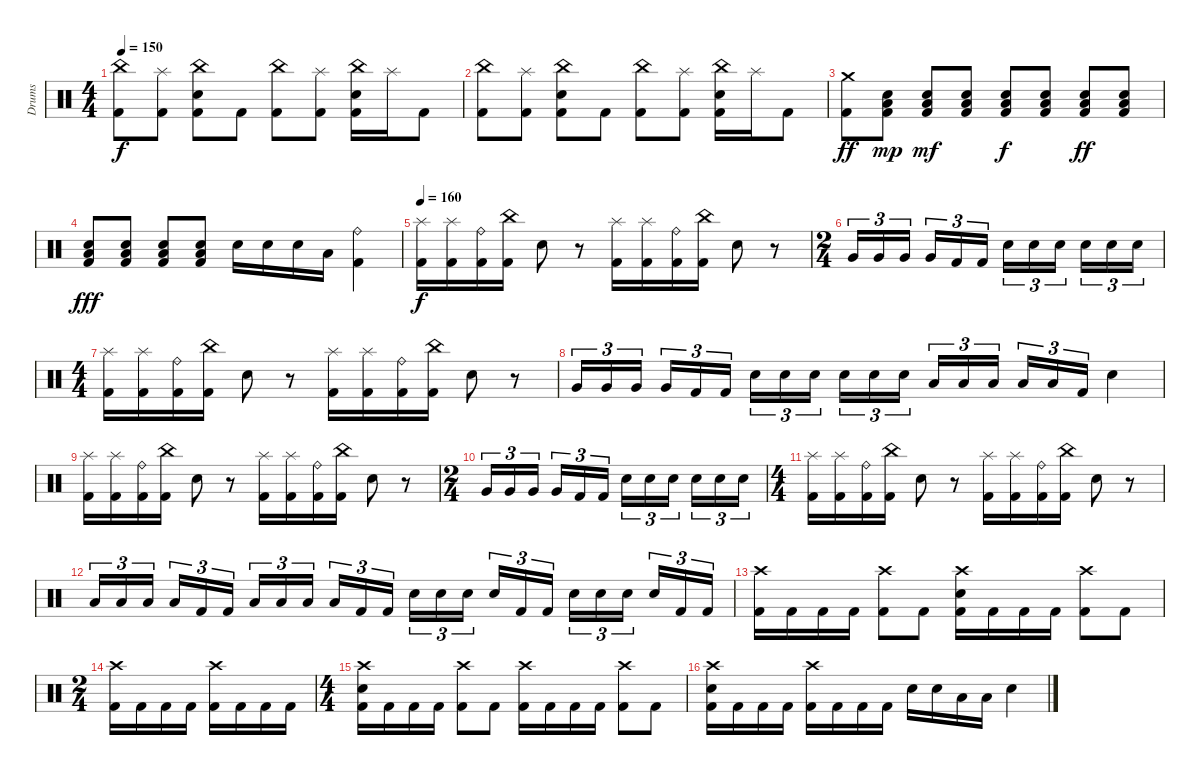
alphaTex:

\track ("Drums" "Drums") {instrument percussion}
\staff {score}
\articulation defaults
\ts (4 4)
\tempo 150
\clef neutral
\ks c
("China (hit)" "Kick (hit) 2").8{dy f} ("Splash (hit)" "Kick (hit) 2").8 ("China (hit)" "Electric Snare (hit)" "Kick (hit) 2").8 "Kick (hit) 2".8 ("China (hit)" "Kick (hit) 2").8 ("Splash (hit)" "Kick (hit) 2").8 ("China (hit)" "Electric Snare (hit)" "Kick (hit) 2").16 "Splash (hit)".16 "Kick (hit) 2".8 |
("China (hit)" "Kick (hit) 2").8 ("Splash (hit)" "Kick (hit) 2").8 ("China (hit)" "Electric Snare (hit)" "Kick (hit) 2").8 "Kick (hit) 2".8 ("China (hit)" "Kick (hit) 2").8 ("Splash (hit)" "Kick (hit) 2").8 ("China (hit)" "Electric Snare (hit)" "Kick (hit) 2").16 "Splash (hit)".16 "Kick (hit) 2".8 |
("Crash medium (hit)" "Kick (hit) 2").8{dy ff} ("Low Floor Tom (hit)" "Electric Snare (hit)" "Kick (hit) 2").8{dy mp} ("Low Floor Tom (hit)" "Electric Snare (hit)" "Kick (hit) 2").8{dy mf} ("Low Floor Tom (hit)" "Electric Snare (hit)" "Kick (hit) 2").8 ("Low Floor Tom (hit)" "Electric Snare (hit)" "Kick (hit) 2").8{dy f} ("Low Floor Tom (hit)" "Electric Snare (hit)" "Kick (hit) 2").8 ("Low Floor Tom (hit)" "Electric Snare (hit)" "Kick (hit) 2").8{dy ff} ("Low Floor Tom (hit)" "Electric Snare (hit)" "Kick (hit) 2").8 |
("Low Floor Tom (hit)" "Electric Snare (hit)" "Kick (hit) 2").8{dy fff} ("Low Floor Tom (hit)" "Electric Snare (hit)" "Kick (hit) 2").8 ("Low Floor Tom (hit)" "Electric Snare (hit)" "Kick (hit) 2").8 ("Low Floor Tom (hit)" "Electric Snare (hit)" "Kick (hit) 2").8 "Electric Snare (hit)".16 "Electric Snare (hit)".16 "Electric Snare (hit)".16 "Low Tom (hit)".16 ("Ride (bell)" "Kick (hit) 2").4 |
\tempo 160
("Splash (hit)" "Kick (hit) 2").16{dy f} ("Splash (hit)" "Kick (hit) 2").16 ("Ride (bell)" "Kick (hit) 2").16 ("China (hit)" "Kick (hit) 2").16 "Electric Snare (hit)".8 r.8 ("Splash (hit)" "Kick (hit) 2").16 ("Splash (hit)" "Kick (hit) 2").16 ("Ride (bell)" "Kick (hit) 2").16 ("China (hit)" "Kick (hit) 2").16 "Electric Snare (hit)".8 r.8 |
\ts (2 4)
"Very Low Tom (hit)".16{tu (3 2)} "Very Low Tom (hit)".16{tu (3 2)} "Very Low Tom (hit)".16{tu (3 2) beam splitsecondary} "Very Low Tom (hit)".16{tu (3 2)} "Kick (hit) 2".16{tu (3 2)} "Kick (hit) 2".16{tu (3 2)} "Electric Snare (hit)".16{tu (3 2)} "Electric Snare (hit)".16{tu (3 2)} "Electric Snare (hit)".16{tu (3 2) beam splitsecondary} "Electric Snare (hit)".16{tu (3 2)} "Electric Snare (hit)".16{tu (3 2)} "Electric Snare (hit)".16{tu (3 2)} |
\ts (4 4)
("Splash (hit)" "Kick (hit) 2").16 ("Splash (hit)" "Kick (hit) 2").16 ("Ride (bell)" "Kick (hit) 2").16 ("China (hit)" "Kick (hit) 2").16 "Electric Snare (hit)".8 r.8 ("Splash (hit)" "Kick (hit) 2").16 ("Splash (hit)" "Kick (hit) 2").16 ("Ride (bell)" "Kick (hit) 2").16 ("China (hit)" "Kick (hit) 2").16 "Electric Snare (hit)".8 r.8 |
"Very Low Tom (hit)".16{tu (3 2)} "Very Low Tom (hit)".16{tu (3 2)} "Very Low Tom (hit)".16{tu (3 2) beam splitsecondary} "Very Low Tom (hit)".16{tu (3 2)} "Kick (hit) 2".16{tu (3 2)} "Kick (hit) 2".16{tu (3 2)} "Electric Snare (hit)".16{tu (3 2)} "Electric Snare (hit)".16{tu (3 2)} "Electric Snare (hit)".16{tu (3 2) beam splitsecondary} "Electric Snare (hit)".16{tu (3 2)} "Electric Snare (hit)".16{tu (3 2)} "Electric Snare (hit)".16{tu (3 2)} "Low Tom (hit)".16{tu (3 2)} "Low Tom (hit)".16{tu (3 2)} "Low Tom (hit)".16{tu (3 2) beam splitsecondary} "Low Tom (hit)".16{tu (3 2)} "Low Tom (hit)".16{tu (3 2)} "Kick (hit) 2".16{tu (3 2)} "Electric Snare (hit)".4 |
("Splash (hit)" "Kick (hit) 2").16 ("Splash (hit)" "Kick (hit) 2").16 ("Ride (bell)" "Kick (hit) 2").16 ("China (hit)" "Kick (hit) 2").16 "Electric Snare (hit)".8 r.8 ("Splash (hit)" "Kick (hit) 2").16 ("Splash (hit)" "Kick (hit) 2").16 ("Ride (bell)" "Kick (hit) 2").16 ("China (hit)" "Kick (hit) 2").16 "Electric Snare (hit)".8 r.8 |
\ts (2 4)
"Very Low Tom (hit)".16{tu (3 2)} "Very Low Tom (hit)".16{tu (3 2)} "Very Low Tom (hit)".16{tu (3 2) beam splitsecondary} "Very Low Tom (hit)".16{tu (3 2)} "Kick (hit) 2".16{tu (3 2)} "Kick (hit) 2".16{tu (3 2)} "Electric Snare (hit)".16{tu (3 2)} "Electric Snare (hit)".16{tu (3 2)} "Electric Snare (hit)".16{tu (3 2) beam splitsecondary} "Electric Snare (hit)".16{tu (3 2)} "Electric Snare (hit)".16{tu (3 2)} "Electric Snare (hit)".16{tu (3 2)} |
\ts (4 4)
("Splash (hit)" "Kick (hit) 2").16 ("Splash (hit)" "Kick (hit) 2").16 ("Ride (bell)" "Kick (hit) 2").16 ("China (hit)" "Kick (hit) 2").16 "Electric Snare (hit)".8 r.8 ("Splash (hit)" "Kick (hit) 2").16 ("Splash (hit)" "Kick (hit) 2").16 ("Ride (bell)" "Kick (hit) 2").16 ("China (hit)" "Kick (hit) 2").16 "Electric Snare (hit)".8 r.8 |
"Low Tom (hit)".16{tu (3 2)} "Low Tom (hit)".16{tu (3 2)} "Low Tom (hit)".16{tu (3 2) beam splitsecondary} "Low Tom (hit)".16{tu (3 2)} "Kick (hit) 2".16{tu (3 2)} "Kick (hit) 2".16{tu (3 2)} "Low Tom (hit)".16{tu (3 2)} "Low Tom (hit)".16{tu (3 2)} "Low Tom (hit)".16{tu (3 2) beam splitsecondary} "Low Tom (hit)".16{tu (3 2)} "Kick (hit) 2".16{tu (3 2)} "Kick (hit) 2".16{tu (3 2)} "Electric Snare (hit)".16{tu (3 2)} "Electric Snare (hit)".16{tu (3 2)} "Electric Snare (hit)".16{tu (3 2) beam splitsecondary} "Electric Snare (hit)".16{tu (3 2)} "Kick (hit) 2".16{tu (3 2)} "Kick (hit) 2".16{tu (3 2)} "Electric Snare (hit)".16{tu (3 2)} "Electric Snare (hit)".16{tu (3 2)} "Electric Snare (hit)".16{tu (3 2) beam splitsecondary} "Electric Snare (hit)".16{tu (3 2)} "Kick (hit) 2".16{tu (3 2)} "Kick (hit) 2".16{tu (3 2)} |
("Crash high (hit)" "Kick (hit) 2").16 "Kick (hit) 2".16 "Kick (hit) 2".16 "Kick (hit) 2".16 ("Crash high (hit)" "Kick (hit) 2").8 "Kick (hit) 2".8 ("Crash high (hit)" "Electric Snare (hit)" "Kick (hit) 2").16 "Kick (hit) 2".16 "Kick (hit) 2".16 "Kick (hit) 2".16 ("Crash high (hit)" "Kick (hit) 2").8 "Kick (hit) 2".8 |
\ts (2 4)
("Crash high (hit)" "Kick (hit) 2").16 "Kick (hit) 2".16 "Kick (hit) 2".16 "Kick (hit) 2".16 ("Crash high (hit)" "Kick (hit) 2").16 "Kick (hit) 2".16 "Kick (hit) 2".16 "Kick (hit) 2".16 |
\ts (4 4)
("Crash high (hit)" "Electric Snare (hit)" "Kick (hit) 2").16 "Kick (hit) 2".16 "Kick (hit) 2".16 "Kick (hit) 2".16 ("Crash high (hit)" "Kick (hit) 2").8 "Kick (hit) 2".8 ("Crash high (hit)" "Kick (hit) 2").16 "Kick (hit) 2".16 "Kick (hit) 2".16 "Kick (hit) 2".16 ("Crash high (hit)" "Kick (hit) 2").8 "Kick (hit) 2".8 |
("Crash high (hit)" "Electric Snare (hit)" "Kick (hit) 2").16 "Kick (hit) 2".16 "Kick (hit) 2".16 "Kick (hit) 2".16 ("Crash high (hit)" "Kick (hit) 2").16 "Kick (hit) 2".16 "Kick (hit) 2".16 "Kick (hit) 2".16 "Electric Snare (hit)".16 "Electric Snare (hit)".16 "Low Tom (hit)".16 "Low Tom (hit)".16 "Electric Snare (hit)".4
